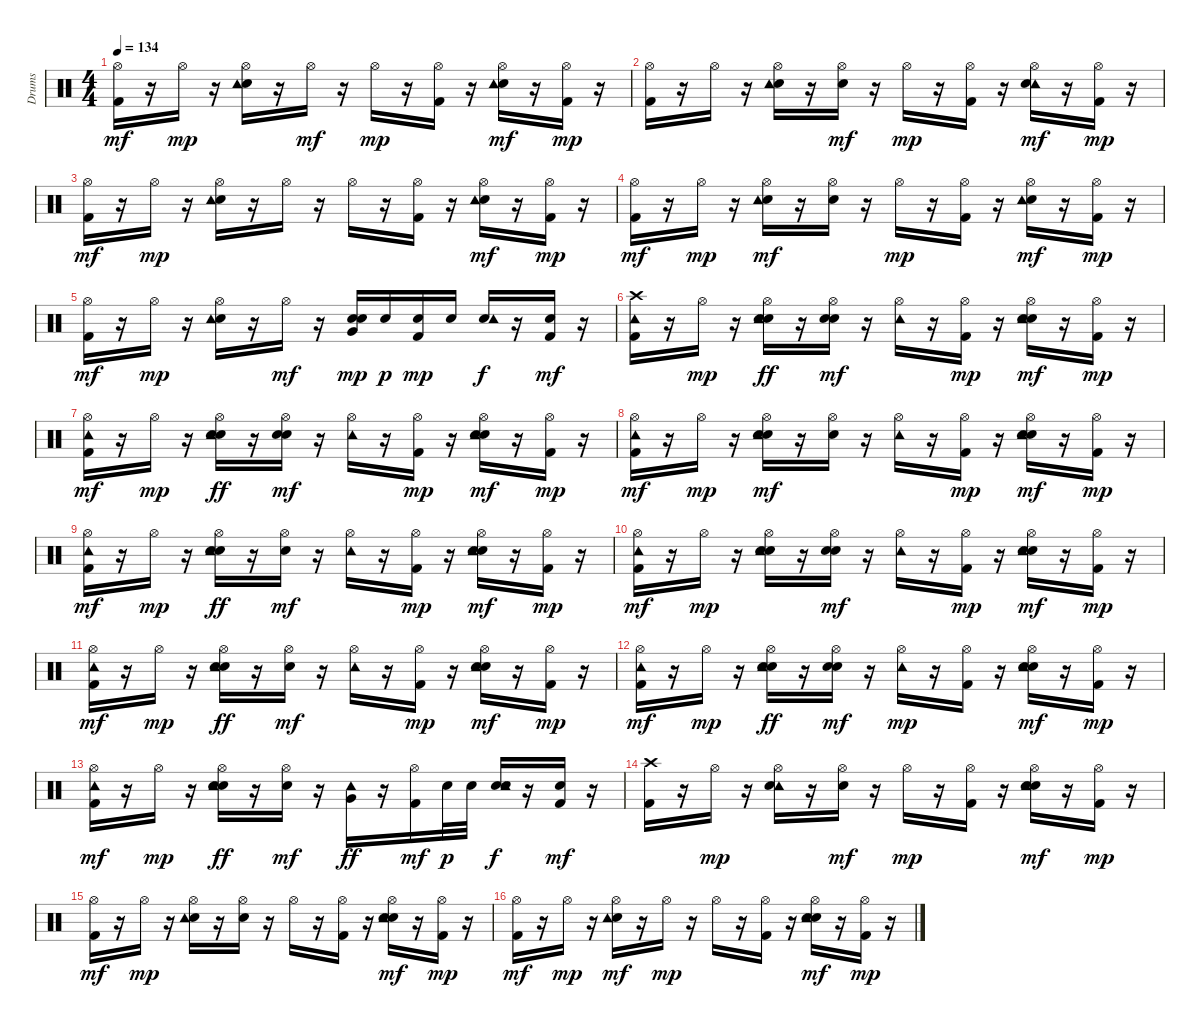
\track ("Drums" "Drums") {instrument percussion}
\staff {score}
\articulation defaults
\ts (4 4)
\tempo 134
\clef neutral
\ks c
("Kick (hit) 2" "Hi-Hat (open)").16{dy mf} r.16 "Hi-Hat (open)".16{dy mp} r.16 ("Hi-Hat (open)" "Snare (hit) 2" "Tambourine (hit)").16 r.16 "Hi-Hat (open)".16{dy mf} r.16 "Hi-Hat (open)".16{dy mp} r.16 ("Kick (hit) 2" "Hi-Hat (open)").16 r.16 ("Hi-Hat (open)" "Snare (hit) 2" "Tambourine (hit)").16{dy mf} r.16 ("Kick (hit) 2" "Hi-Hat (open)").16{dy mp} r.16 |
("Kick (hit) 2" "Hi-Hat (open)").16 r.16 "Hi-Hat (open)".16 r.16 ("Hi-Hat (open)" "Snare (hit) 2" "Tambourine (hit)").16 r.16 ("Hi-Hat (open)" "Snare (hit) 2").16{dy mf} r.16 "Hi-Hat (open)".16{dy mp} r.16 ("Kick (hit) 2" "Hi-Hat (open)").16 r.16 ("Tambourine (hit)" "Hi-Hat (open)" "Snare (hit) 2").16{dy mf} r.16 ("Kick (hit) 2" "Hi-Hat (open)").16{dy mp} r.16 |
("Kick (hit) 2" "Hi-Hat (open)").16{dy mf} r.16 "Hi-Hat (open)".16{dy mp} r.16 ("Hi-Hat (open)" "Snare (hit) 2" "Tambourine (hit)").16 r.16 "Hi-Hat (open)".16 r.16 "Hi-Hat (open)".16 r.16 ("Kick (hit) 2" "Hi-Hat (open)").16 r.16 ("Hi-Hat (open)" "Snare (hit) 2" "Tambourine (hit)").16{dy mf} r.16 ("Kick (hit) 2" "Hi-Hat (open)").16{dy mp} r.16 |
("Kick (hit) 2" "Hi-Hat (open)").16{dy mf} r.16 "Hi-Hat (open)".16{dy mp} r.16 ("Snare (hit) 2" "Tambourine (hit)" "Hi-Hat (open)").16{dy mf} r.16 ("Hi-Hat (open)" "Snare (hit) 2").16 r.16 "Hi-Hat (open)".16{dy mp} r.16 ("Kick (hit) 2" "Hi-Hat (open)").16 r.16 ("Hi-Hat (open)" "Snare (hit) 2" "Tambourine (hit)").16{dy mf} r.16 ("Kick (hit) 2" "Hi-Hat (open)").16{dy mp} r.16 |
("Kick (hit) 2" "Hi-Hat (open)").16{dy mf} r.16 "Hi-Hat (open)".16{dy mp} r.16 ("Hi-Hat (open)" "Snare (hit) 2" "Tambourine (hit)").16 r.16 "Hi-Hat (open)".16{dy mf} r.16 ("Snare (hit) 2" "Very Low Tom (hit)" "Snare (hit) 2").16{dy mp} "Snare (hit) 2".16{dy p} ("Kick (hit) 2" "Snare (hit) 2").16{dy mp} "Snare (hit) 2".16 ("Snare (hit) 2" "Tambourine (hit)").16{dy f} r.16 ("Kick (hit) 2" "Snare (hit) 2").16{dy mf} r.16 |
("Kick (hit) 2" "Tambourine (hit)" "Crash high (hit)").16 r.16 "Hi-Hat (open)".16{dy mp} r.16 ("Hi-Hat (open)" "Snare (hit) 2" "Hand Clap (hit)" "Tambourine (hit)").16{dy ff} r.16 ("Hi-Hat (open)" "Snare (hit) 2" "Hand Clap (hit)").16{dy mf} r.16 ("Hi-Hat (open)" "Tambourine (hit)").16 r.16 ("Kick (hit) 2" "Hi-Hat (open)").16{dy mp} r.16 ("Hi-Hat (open)" "Snare (hit) 2" "Hand Clap (hit)" "Tambourine (hit)").16{dy mf} r.16 ("Kick (hit) 2" "Hi-Hat (open)").16{dy mp} r.16 |
("Kick (hit) 2" "Hi-Hat (open)" "Tambourine (hit)").16{dy mf} r.16 "Hi-Hat (open)".16{dy mp} r.16 ("Hi-Hat (open)" "Snare (hit) 2" "Hand Clap (hit)" "Tambourine (hit)").16{dy ff} r.16 ("Hi-Hat (open)" "Snare (hit) 2" "Hand Clap (hit)").16{dy mf} r.16 ("Hi-Hat (open)" "Tambourine (hit)").16 r.16 ("Kick (hit) 2" "Hi-Hat (open)").16{dy mp} r.16 ("Hand Clap (hit)" "Hi-Hat (open)" "Snare (hit) 2" "Tambourine (hit)").16{dy mf} r.16 ("Kick (hit) 2" "Hi-Hat (open)").16{dy mp} r.16 |
("Kick (hit) 2" "Hi-Hat (open)" "Tambourine (hit)").16{dy mf} r.16 "Hi-Hat (open)".16{dy mp} r.16 ("Snare (hit) 2" "Hand Clap (hit)" "Tambourine (hit)" "Hi-Hat (open)").16{dy mf} r.16 ("Hi-Hat (open)" "Hand Clap (hit)").16 r.16 ("Hi-Hat (open)" "Tambourine (hit)").16 r.16 ("Hi-Hat (open)" "Kick (hit) 2").16{dy mp} r.16 ("Hi-Hat (open)" "Snare (hit) 2" "Hand Clap (hit)" "Tambourine (hit)").16{dy mf} r.16 ("Kick (hit) 2" "Hi-Hat (open)").16{dy mp} r.16 |
("Kick (hit) 2" "Hi-Hat (open)" "Tambourine (hit)").16{dy mf} r.16 "Hi-Hat (open)".16{dy mp} r.16 ("Hi-Hat (open)" "Snare (hit) 2" "Hand Clap (hit)" "Tambourine (hit)").16{dy ff} r.16 ("Hi-Hat (open)" "Hand Clap (hit)").16{dy mf} r.16 ("Hi-Hat (open)" "Tambourine (hit)").16 r.16 ("Kick (hit) 2" "Hi-Hat (open)").16{dy mp} r.16 ("Hi-Hat (open)" "Snare (hit) 2" "Hand Clap (hit)" "Tambourine (hit)").16{dy mf} r.16 ("Kick (hit) 2" "Hi-Hat (open)").16{dy mp} r.16 |
("Hi-Hat (open)" "Tambourine (hit)" "Kick (hit) 2").16{dy mf} r.16 "Hi-Hat (open)".16{dy mp} r.16 ("Hi-Hat (open)" "Hand Clap (hit)" "Tambourine (hit)" "Snare (hit) 2").16 r.16 ("Hi-Hat (open)" "Snare (hit) 2" "Hand Clap (hit)").16{dy mf} r.16 ("Hi-Hat (open)" "Tambourine (hit)").16 r.16 ("Kick (hit) 2" "Hi-Hat (open)").16{dy mp} r.16 ("Hi-Hat (open)" "Snare (hit) 2" "Hand Clap (hit)" "Tambourine (hit)").16{dy mf} r.16 ("Kick (hit) 2" "Hi-Hat (open)").16{dy mp} r.16 |
("Kick (hit) 2" "Hi-Hat (open)" "Tambourine (hit)").16{dy mf} r.16 "Hi-Hat (open)".16{dy mp} r.16 ("Hi-Hat (open)" "Snare (hit) 2" "Hand Clap (hit)" "Tambourine (hit)").16{dy ff} r.16 ("Hi-Hat (open)" "Hand Clap (hit)").16{dy mf} r.16 ("Hi-Hat (open)" "Tambourine (hit)").16 r.16 ("Kick (hit) 2" "Hi-Hat (open)").16{dy mp} r.16 ("Hi-Hat (open)" "Snare (hit) 2" "Hand Clap (hit)" "Tambourine (hit)").16{dy mf} r.16 ("Kick (hit) 2" "Hi-Hat (open)").16{dy mp} r.16 |
("Kick (hit) 2" "Hi-Hat (open)" "Tambourine (hit)").16{dy mf} r.16 "Hi-Hat (open)".16{dy mp} r.16 ("Hi-Hat (open)" "Snare (hit) 2" "Hand Clap (hit)" "Tambourine (hit)").16{dy ff} r.16 ("Hi-Hat (open)" "Snare (hit) 2" "Hand Clap (hit)").16{dy mf} r.16 ("Tambourine (hit)" "Hi-Hat (open)").16{dy mp} r.16 ("Kick (hit) 2" "Hi-Hat (open)").16 r.16 ("Hi-Hat (open)" "Snare (hit) 2" "Hand Clap (hit)" "Tambourine (hit)").16{dy mf} r.16 ("Kick (hit) 2" "Hi-Hat (open)").16{dy mp} r.16 |
("Kick (hit) 2" "Tambourine (hit)" "Hi-Hat (open)").16{dy mf} r.16 "Hi-Hat (open)".16{dy mp} r.16 ("Hi-Hat (open)" "Snare (hit) 2" "Hand Clap (hit)" "Tambourine (hit)").16{dy ff} r.16 ("Hi-Hat (open)" "Hand Clap (hit)").16{dy mf} r.16 ("Tambourine (hit)" "Very Low Tom (hit)").16{dy ff} r.16 ("Kick (hit) 2" "Hi-Hat (open)").16{dy mf} "Snare (hit) 2".32{dy p} "Snare (hit) 2".32 ("Snare (hit) 2" "Hand Clap (hit)" "Tambourine (hit)").16{dy f} r.16 ("Kick (hit) 2" "Snare (hit) 2").16{dy mf} r.16 |
("Kick (hit) 2" "Crash high (hit)").16 r.16 "Hi-Hat (open)".16{dy mp} r.16 ("Tambourine (hit)" "Hi-Hat (open)" "Snare (hit) 2").16 r.16 ("Hi-Hat (open)" "Snare (hit) 2").16{dy mf} r.16 "Hi-Hat (open)".16{dy mp} r.16 ("Kick (hit) 2" "Hi-Hat (open)").16 r.16 ("Hand Clap (hit)" "Hi-Hat (open)" "Snare (hit) 2" "Tambourine (hit)").16{dy mf} r.16 ("Kick (hit) 2" "Hi-Hat (open)").16{dy mp} r.16 |
("Kick (hit) 2" "Hi-Hat (open)").16{dy mf} r.16 "Hi-Hat (open)".16{dy mp} r.16 ("Hi-Hat (open)" "Snare (hit) 2" "Tambourine (hit)").16 r.16 ("Hi-Hat (open)" "Snare (hit) 2").16 r.16 "Hi-Hat (open)".16 r.16 ("Kick (hit) 2" "Hi-Hat (open)").16 r.16 ("Hi-Hat (open)" "Snare (hit) 2" "Hand Clap (hit)" "Tambourine (hit)").16{dy mf} r.16 ("Kick (hit) 2" "Hi-Hat (open)").16{dy mp} r.16 |
("Kick (hit) 2" "Hi-Hat (open)").16{dy mf} r.16 "Hi-Hat (open)".16{dy mp} r.16 ("Snare (hit) 2" "Tambourine (hit)" "Hi-Hat (open)").16{dy mf} r.16 "Hi-Hat (open)".16{dy mp} r.16 "Hi-Hat (open)".16 r.16 ("Kick (hit) 2" "Hi-Hat (open)").16 r.16 ("Hi-Hat (open)" "Snare (hit) 2" "Hand Clap (hit)" "Tambourine (hit)").16{dy mf} r.16 ("Kick (hit) 2" "Hi-Hat (open)").16{dy mp} r.16
